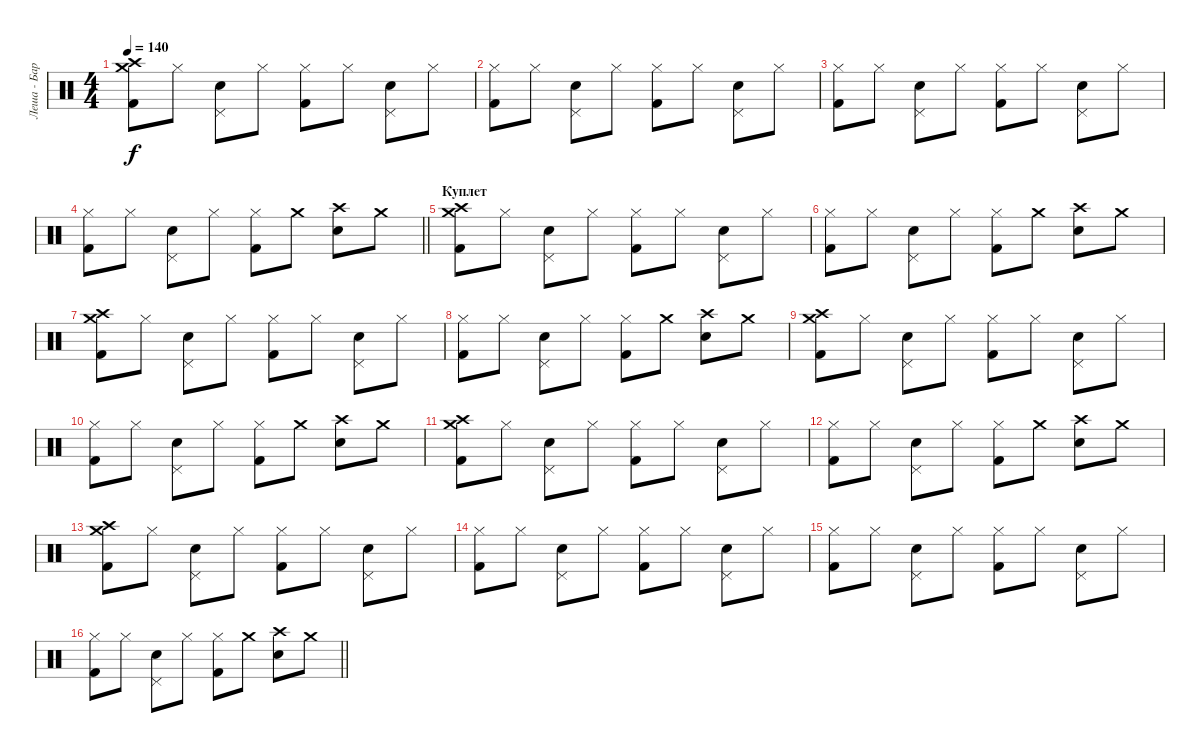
\track ("Леша - Барабаны" "Леша - Бар") {instrument percussion}
\staff {score}
\articulation defaults
\ts (4 4)
\tempo 140
\clef neutral
\ks c
("Crash high (hit)" "Crash medium (hit)" "Kick (hit) 2").8{dy f} "Hi-Hat (closed)".8 ("Pedal Hi-Hat (hit)" "Snare (hit) 2").8 "Hi-Hat (closed)".8 ("Hi-Hat (closed)" "Kick (hit) 2").8 "Hi-Hat (closed)".8 ("Pedal Hi-Hat (hit)" "Snare (hit) 2").8 "Hi-Hat (closed)".8 |
("Hi-Hat (closed)" "Kick (hit) 2").8 "Hi-Hat (closed)".8 ("Pedal Hi-Hat (hit)" "Snare (hit) 2").8 "Hi-Hat (closed)".8 ("Hi-Hat (closed)" "Kick (hit) 2").8 "Hi-Hat (closed)".8 ("Pedal Hi-Hat (hit)" "Snare (hit) 2").8 "Hi-Hat (closed)".8 |
("Hi-Hat (closed)" "Kick (hit) 2").8 "Hi-Hat (closed)".8 ("Pedal Hi-Hat (hit)" "Snare (hit) 2").8 "Hi-Hat (closed)".8 ("Hi-Hat (closed)" "Kick (hit) 2").8 "Hi-Hat (closed)".8 ("Pedal Hi-Hat (hit)" "Snare (hit) 2").8 "Hi-Hat (closed)".8 |
\barLineRight lightlight
("Hi-Hat (closed)" "Kick (hit) 2").8 "Hi-Hat (closed)".8 ("Pedal Hi-Hat (hit)" "Snare (hit) 2").8 "Hi-Hat (closed)".8 ("Hi-Hat (closed)" "Kick (hit) 2").8 "Crash medium (hit)".8 ("Crash high (hit)" "Snare (hit) 2").8 "Crash medium (hit)".8 |
\section ("" "Куплет")
("Crash high (hit)" "Crash medium (hit)" "Kick (hit) 2").8 "Hi-Hat (closed)".8 ("Pedal Hi-Hat (hit)" "Snare (hit) 2").8 "Hi-Hat (closed)".8 ("Hi-Hat (closed)" "Kick (hit) 2").8 "Hi-Hat (closed)".8 ("Pedal Hi-Hat (hit)" "Snare (hit) 2").8 "Hi-Hat (closed)".8 |
("Hi-Hat (closed)" "Kick (hit) 2").8 "Hi-Hat (closed)".8 ("Pedal Hi-Hat (hit)" "Snare (hit) 2").8 "Hi-Hat (closed)".8 ("Hi-Hat (closed)" "Kick (hit) 2").8 "Crash medium (hit)".8 ("Crash high (hit)" "Snare (hit) 2").8 "Crash medium (hit)".8 |
("Crash high (hit)" "Crash medium (hit)" "Kick (hit) 2").8 "Hi-Hat (closed)".8 ("Pedal Hi-Hat (hit)" "Snare (hit) 2").8 "Hi-Hat (closed)".8 ("Hi-Hat (closed)" "Kick (hit) 2").8 "Hi-Hat (closed)".8 ("Pedal Hi-Hat (hit)" "Snare (hit) 2").8 "Hi-Hat (closed)".8 |
("Hi-Hat (closed)" "Kick (hit) 2").8 "Hi-Hat (closed)".8 ("Pedal Hi-Hat (hit)" "Snare (hit) 2").8 "Hi-Hat (closed)".8 ("Hi-Hat (closed)" "Kick (hit) 2").8 "Crash medium (hit)".8 ("Crash high (hit)" "Snare (hit) 2").8 "Crash medium (hit)".8 |
("Crash high (hit)" "Crash medium (hit)" "Kick (hit) 2").8 "Hi-Hat (closed)".8 ("Pedal Hi-Hat (hit)" "Snare (hit) 2").8 "Hi-Hat (closed)".8 ("Hi-Hat (closed)" "Kick (hit) 2").8 "Hi-Hat (closed)".8 ("Pedal Hi-Hat (hit)" "Snare (hit) 2").8 "Hi-Hat (closed)".8 |
("Hi-Hat (closed)" "Kick (hit) 2").8 "Hi-Hat (closed)".8 ("Pedal Hi-Hat (hit)" "Snare (hit) 2").8 "Hi-Hat (closed)".8 ("Hi-Hat (closed)" "Kick (hit) 2").8 "Crash medium (hit)".8 ("Crash high (hit)" "Snare (hit) 2").8 "Crash medium (hit)".8 |
("Crash high (hit)" "Crash medium (hit)" "Kick (hit) 2").8 "Hi-Hat (closed)".8 ("Pedal Hi-Hat (hit)" "Snare (hit) 2").8 "Hi-Hat (closed)".8 ("Hi-Hat (closed)" "Kick (hit) 2").8 "Hi-Hat (closed)".8 ("Pedal Hi-Hat (hit)" "Snare (hit) 2").8 "Hi-Hat (closed)".8 |
("Hi-Hat (closed)" "Kick (hit) 2").8 "Hi-Hat (closed)".8 ("Pedal Hi-Hat (hit)" "Snare (hit) 2").8 "Hi-Hat (closed)".8 ("Hi-Hat (closed)" "Kick (hit) 2").8 "Crash medium (hit)".8 ("Crash high (hit)" "Snare (hit) 2").8 "Crash medium (hit)".8 |
("Crash high (hit)" "Crash medium (hit)" "Kick (hit) 2").8 "Hi-Hat (closed)".8 ("Pedal Hi-Hat (hit)" "Snare (hit) 2").8 "Hi-Hat (closed)".8 ("Hi-Hat (closed)" "Kick (hit) 2").8 "Hi-Hat (closed)".8 ("Pedal Hi-Hat (hit)" "Snare (hit) 2").8 "Hi-Hat (closed)".8 |
("Hi-Hat (closed)" "Kick (hit) 2").8 "Hi-Hat (closed)".8 ("Pedal Hi-Hat (hit)" "Snare (hit) 2").8 "Hi-Hat (closed)".8 ("Hi-Hat (closed)" "Kick (hit) 2").8 "Hi-Hat (closed)".8 ("Pedal Hi-Hat (hit)" "Snare (hit) 2").8 "Hi-Hat (closed)".8 |
("Hi-Hat (closed)" "Kick (hit) 2").8 "Hi-Hat (closed)".8 ("Pedal Hi-Hat (hit)" "Snare (hit) 2").8 "Hi-Hat (closed)".8 ("Hi-Hat (closed)" "Kick (hit) 2").8 "Hi-Hat (closed)".8 ("Pedal Hi-Hat (hit)" "Snare (hit) 2").8 "Hi-Hat (closed)".8 |
\barLineRight lightlight
("Hi-Hat (closed)" "Kick (hit) 2").8 "Hi-Hat (closed)".8 ("Pedal Hi-Hat (hit)" "Snare (hit) 2").8 "Hi-Hat (closed)".8 ("Hi-Hat (closed)" "Kick (hit) 2").8 "Crash medium (hit)".8 ("Crash high (hit)" "Snare (hit) 2").8 "Crash medium (hit)".8
